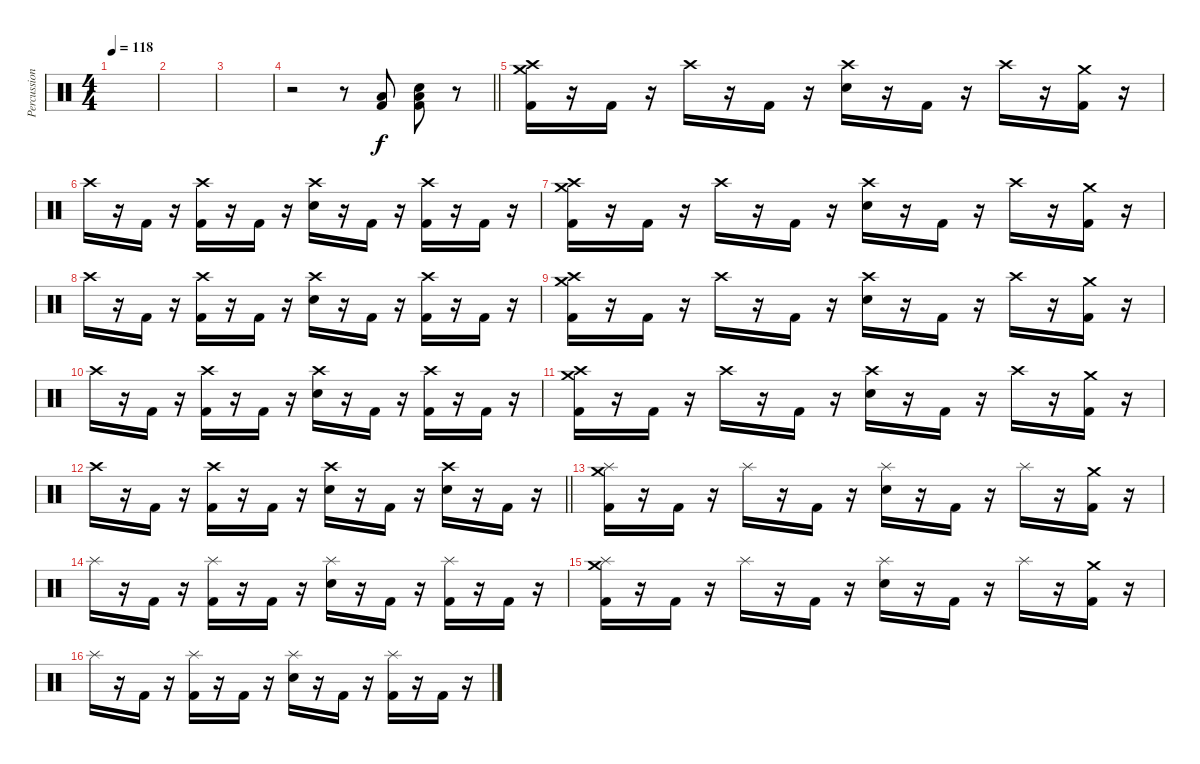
\track ("Percussions" "Percussion") {instrument percussion}
\staff {score}
\articulation defaults
\ts (4 4)
\tempo 118
\clef neutral
\ks c
|
|
|
\barLineRight lightlight
r.2 r.8 ("Low Tom (hit)" "Kick (hit) 2").8 ("Low Tom (hit)" "Electric Snare (hit)" "Kick (hit) 2").8 r.8 |
\section ("" "")
("Crash medium (hit)" "Crash high (hit)" "Kick (hit) 2").16 r.16 "Kick (hit) 2".16 r.16 "Crash high (hit)".16 r.16 "Kick (hit) 2".16 r.16 ("Crash high (hit)" "Electric Snare (hit)").16 r.16 "Kick (hit) 2".16 r.16 "Crash high (hit)".16 r.16 ("Crash medium (hit)" "Kick (hit) 2").16 r.16 |
"Crash high (hit)".16 r.16 "Kick (hit) 2".16 r.16 ("Crash high (hit)" "Kick (hit) 2").16 r.16 "Kick (hit) 2".16 r.16 ("Crash high (hit)" "Electric Snare (hit)").16 r.16 "Kick (hit) 2".16 r.16 ("Crash high (hit)" "Kick (hit) 2").16 r.16 "Kick (hit) 2".16 r.16 |
("Crash medium (hit)" "Crash high (hit)" "Kick (hit) 2").16 r.16 "Kick (hit) 2".16 r.16 "Crash high (hit)".16 r.16 "Kick (hit) 2".16 r.16 ("Crash high (hit)" "Electric Snare (hit)").16 r.16 "Kick (hit) 2".16 r.16 "Crash high (hit)".16 r.16 ("Crash medium (hit)" "Kick (hit) 2").16 r.16 |
"Crash high (hit)".16 r.16 "Kick (hit) 2".16 r.16 ("Crash high (hit)" "Kick (hit) 2").16 r.16 "Kick (hit) 2".16 r.16 ("Crash high (hit)" "Electric Snare (hit)").16 r.16 "Kick (hit) 2".16 r.16 ("Crash high (hit)" "Kick (hit) 2").16 r.16 "Kick (hit) 2".16 r.16 |
("Crash medium (hit)" "Crash high (hit)" "Kick (hit) 2").16 r.16 "Kick (hit) 2".16 r.16 "Crash high (hit)".16 r.16 "Kick (hit) 2".16 r.16 ("Crash high (hit)" "Electric Snare (hit)").16 r.16 "Kick (hit) 2".16 r.16 "Crash high (hit)".16 r.16 ("Crash medium (hit)" "Kick (hit) 2").16 r.16 |
"Crash high (hit)".16 r.16 "Kick (hit) 2".16 r.16 ("Crash high (hit)" "Kick (hit) 2").16 r.16 "Kick (hit) 2".16 r.16 ("Crash high (hit)" "Electric Snare (hit)").16 r.16 "Kick (hit) 2".16 r.16 ("Crash high (hit)" "Kick (hit) 2").16 r.16 "Kick (hit) 2".16 r.16 |
("Crash medium (hit)" "Crash high (hit)" "Kick (hit) 2").16 r.16 "Kick (hit) 2".16 r.16 "Crash high (hit)".16 r.16 "Kick (hit) 2".16 r.16 ("Crash high (hit)" "Electric Snare (hit)").16 r.16 "Kick (hit) 2".16 r.16 "Crash high (hit)".16 r.16 ("Crash medium (hit)" "Kick (hit) 2").16 r.16 |
\barLineRight lightlight "Crash high (hit)".16
r.16 "Kick (hit) 2".16 r.16 ("Crash high (hit)" "Kick (hit) 2").16 r.16 "Kick (hit) 2".16 r.16 ("Crash high (hit)" "Electric Snare (hit)").16 r.16 "Kick (hit) 2".16 r.16 ("Crash high (hit)" "Electric Snare (hit)").16 r.16 "Kick (hit) 2".16 r.16 |
\section ("" "")
("Crash medium (hit)" "Splash (hit)" "Kick (hit) 2").16 r.16 "Kick (hit) 2".16 r.16 "Splash (hit)".16 r.16 "Kick (hit) 2".16 r.16 ("Splash (hit)" "Electric Snare (hit)").16 r.16 "Kick (hit) 2".16 r.16 "Splash (hit)".16 r.16 ("Crash medium (hit)" "Kick (hit) 2").16 r.16 |
"Splash (hit)".16 r.16 "Kick (hit) 2".16 r.16 ("Splash (hit)" "Kick (hit) 2").16 r.16 "Kick (hit) 2".16 r.16 ("Splash (hit)" "Electric Snare (hit)").16 r.16 "Kick (hit) 2".16 r.16 ("Splash (hit)" "Kick (hit) 2").16 r.16 "Kick (hit) 2".16 r.16 |
("Crash medium (hit)" "Splash (hit)" "Kick (hit) 2").16 r.16 "Kick (hit) 2".16 r.16 "Splash (hit)".16 r.16 "Kick (hit) 2".16 r.16 ("Splash (hit)" "Electric Snare (hit)").16 r.16 "Kick (hit) 2".16 r.16 "Splash (hit)".16 r.16 ("Crash medium (hit)" "Kick (hit) 2").16 r.16 |
"Splash (hit)".16 r.16 "Kick (hit) 2".16 r.16 ("Splash (hit)" "Kick (hit) 2").16 r.16 "Kick (hit) 2".16 r.16 ("Splash (hit)" "Electric Snare (hit)").16 r.16 "Kick (hit) 2".16 r.16 ("Splash (hit)" "Kick (hit) 2").16 r.16 "Kick (hit) 2".16 r.16
